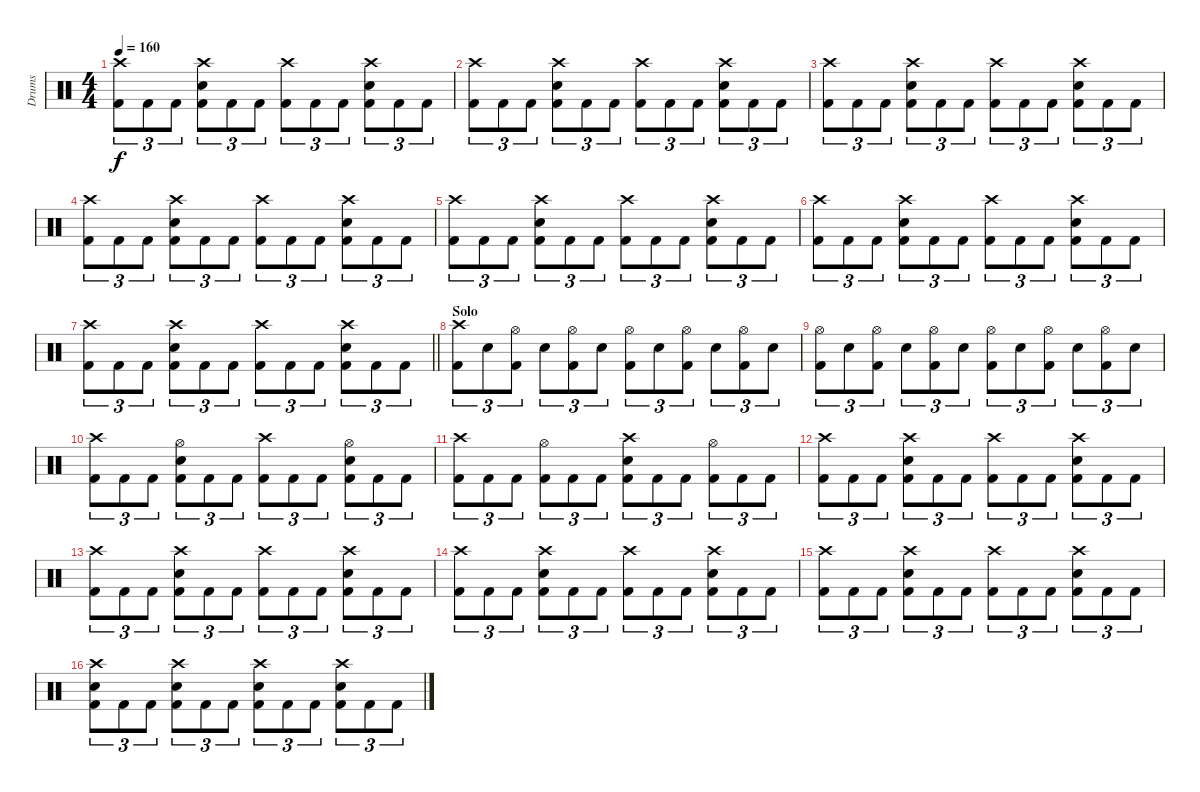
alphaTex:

\track ("Drums" "Drums") {instrument percussion}
\staff {score}
\articulation defaults
\ts (4 4)
\tempo 160
\clef neutral
\ks c
("Crash high (hit)" "Kick (hit) 2").8{tu (3 2) dy f} "Kick (hit) 2".8{tu (3 2)} "Kick (hit) 2".8{tu (3 2)} ("Crash high (hit)" "Electric Snare (hit)" "Kick (hit) 2").8{tu (3 2)} "Kick (hit) 2".8{tu (3 2)} "Kick (hit) 2".8{tu (3 2)} ("Crash high (hit)" "Kick (hit) 2").8{tu (3 2)} "Kick (hit) 2".8{tu (3 2)} "Kick (hit) 2".8{tu (3 2)} ("Crash high (hit)" "Electric Snare (hit)" "Kick (hit) 2").8{tu (3 2)} "Kick (hit) 2".8{tu (3 2)} "Kick (hit) 2".8{tu (3 2)} |
("Crash high (hit)" "Kick (hit) 2").8{tu (3 2)} "Kick (hit) 2".8{tu (3 2)} "Kick (hit) 2".8{tu (3 2)} ("Crash high (hit)" "Electric Snare (hit)" "Kick (hit) 2").8{tu (3 2)} "Kick (hit) 2".8{tu (3 2)} "Kick (hit) 2".8{tu (3 2)} ("Crash high (hit)" "Kick (hit) 2").8{tu (3 2)} "Kick (hit) 2".8{tu (3 2)} "Kick (hit) 2".8{tu (3 2)} ("Crash high (hit)" "Electric Snare (hit)" "Kick (hit) 2").8{tu (3 2)} "Kick (hit) 2".8{tu (3 2)} "Kick (hit) 2".8{tu (3 2)} |
("Crash high (hit)" "Kick (hit) 2").8{tu (3 2)} "Kick (hit) 2".8{tu (3 2)} "Kick (hit) 2".8{tu (3 2)} ("Crash high (hit)" "Electric Snare (hit)" "Kick (hit) 2").8{tu (3 2)} "Kick (hit) 2".8{tu (3 2)} "Kick (hit) 2".8{tu (3 2)} ("Crash high (hit)" "Kick (hit) 2").8{tu (3 2)} "Kick (hit) 2".8{tu (3 2)} "Kick (hit) 2".8{tu (3 2)} ("Crash high (hit)" "Electric Snare (hit)" "Kick (hit) 2").8{tu (3 2)} "Kick (hit) 2".8{tu (3 2)} "Kick (hit) 2".8{tu (3 2)} |
("Crash high (hit)" "Kick (hit) 2").8{tu (3 2)} "Kick (hit) 2".8{tu (3 2)} "Kick (hit) 2".8{tu (3 2)} ("Crash high (hit)" "Electric Snare (hit)" "Kick (hit) 2").8{tu (3 2)} "Kick (hit) 2".8{tu (3 2)} "Kick (hit) 2".8{tu (3 2)} ("Crash high (hit)" "Kick (hit) 2").8{tu (3 2)} "Kick (hit) 2".8{tu (3 2)} "Kick (hit) 2".8{tu (3 2)} ("Crash high (hit)" "Electric Snare (hit)" "Kick (hit) 2").8{tu (3 2)} "Kick (hit) 2".8{tu (3 2)} "Kick (hit) 2".8{tu (3 2)} |
("Crash high (hit)" "Kick (hit) 2").8{tu (3 2)} "Kick (hit) 2".8{tu (3 2)} "Kick (hit) 2".8{tu (3 2)} ("Crash high (hit)" "Electric Snare (hit)" "Kick (hit) 2").8{tu (3 2)} "Kick (hit) 2".8{tu (3 2)} "Kick (hit) 2".8{tu (3 2)} ("Crash high (hit)" "Kick (hit) 2").8{tu (3 2)} "Kick (hit) 2".8{tu (3 2)} "Kick (hit) 2".8{tu (3 2)} ("Crash high (hit)" "Electric Snare (hit)" "Kick (hit) 2").8{tu (3 2)} "Kick (hit) 2".8{tu (3 2)} "Kick (hit) 2".8{tu (3 2)} |
("Crash high (hit)" "Kick (hit) 2").8{tu (3 2)} "Kick (hit) 2".8{tu (3 2)} "Kick (hit) 2".8{tu (3 2)} ("Crash high (hit)" "Electric Snare (hit)" "Kick (hit) 2").8{tu (3 2)} "Kick (hit) 2".8{tu (3 2)} "Kick (hit) 2".8{tu (3 2)} ("Crash high (hit)" "Kick (hit) 2").8{tu (3 2)} "Kick (hit) 2".8{tu (3 2)} "Kick (hit) 2".8{tu (3 2)} ("Crash high (hit)" "Electric Snare (hit)" "Kick (hit) 2").8{tu (3 2)} "Kick (hit) 2".8{tu (3 2)} "Kick (hit) 2".8{tu (3 2)} |
\barLineRight lightlight
("Crash high (hit)" "Kick (hit) 2").8{tu (3 2)} "Kick (hit) 2".8{tu (3 2)} "Kick (hit) 2".8{tu (3 2)} ("Crash high (hit)" "Electric Snare (hit)" "Kick (hit) 2").8{tu (3 2)} "Kick (hit) 2".8{tu (3 2)} "Kick (hit) 2".8{tu (3 2)} ("Crash high (hit)" "Kick (hit) 2").8{tu (3 2)} "Kick (hit) 2".8{tu (3 2)} "Kick (hit) 2".8{tu (3 2)} ("Crash high (hit)" "Electric Snare (hit)" "Kick (hit) 2").8{tu (3 2)} "Kick (hit) 2".8{tu (3 2)} "Kick (hit) 2".8{tu (3 2)} |
\section ("" "Solo")
("Crash high (hit)" "Kick (hit) 2").8{tu (3 2)} "Electric Snare (hit)".8{tu (3 2)} ("Hi-Hat (open)" "Kick (hit) 2").8{tu (3 2)} "Electric Snare (hit)".8{tu (3 2)} ("Hi-Hat (open)" "Kick (hit) 2").8{tu (3 2)} "Electric Snare (hit)".8{tu (3 2)} ("Hi-Hat (open)" "Kick (hit) 2").8{tu (3 2)} "Electric Snare (hit)".8{tu (3 2)} ("Hi-Hat (open)" "Kick (hit) 2").8{tu (3 2)} "Electric Snare (hit)".8{tu (3 2)} ("Hi-Hat (open)" "Kick (hit) 2").8{tu (3 2)} "Electric Snare (hit)".8{tu (3 2)} |
("Hi-Hat (open)" "Kick (hit) 2").8{tu (3 2)} "Electric Snare (hit)".8{tu (3 2)} ("Hi-Hat (open)" "Kick (hit) 2").8{tu (3 2)} "Electric Snare (hit)".8{tu (3 2)} ("Hi-Hat (open)" "Kick (hit) 2").8{tu (3 2)} "Electric Snare (hit)".8{tu (3 2)} ("Hi-Hat (open)" "Kick (hit) 2").8{tu (3 2)} "Electric Snare (hit)".8{tu (3 2)} ("Hi-Hat (open)" "Kick (hit) 2").8{tu (3 2)} "Electric Snare (hit)".8{tu (3 2)} ("Hi-Hat (open)" "Kick (hit) 2").8{tu (3 2)} "Electric Snare (hit)".8{tu (3 2)} |
("Crash high (hit)" "Kick (hit) 2").8{tu (3 2)} "Kick (hit) 2".8{tu (3 2)} "Kick (hit) 2".8{tu (3 2)} ("Hi-Hat (open)" "Electric Snare (hit)" "Kick (hit) 2").8{tu (3 2)} "Kick (hit) 2".8{tu (3 2)} "Kick (hit) 2".8{tu (3 2)} ("Crash high (hit)" "Kick (hit) 2").8{tu (3 2)} "Kick (hit) 2".8{tu (3 2)} "Kick (hit) 2".8{tu (3 2)} ("Hi-Hat (open)" "Electric Snare (hit)" "Kick (hit) 2").8{tu (3 2)} "Kick (hit) 2".8{tu (3 2)} "Kick (hit) 2".8{tu (3 2)} |
("Crash high (hit)" "Kick (hit) 2").8{tu (3 2)} "Kick (hit) 2".8{tu (3 2)} "Kick (hit) 2".8{tu (3 2)} ("Hi-Hat (open)" "Kick (hit) 2").8{tu (3 2)} "Kick (hit) 2".8{tu (3 2)} "Kick (hit) 2".8{tu (3 2)} ("Crash high (hit)" "Electric Snare (hit)" "Kick (hit) 2").8{tu (3 2)} "Kick (hit) 2".8{tu (3 2)} "Kick (hit) 2".8{tu (3 2)} ("Hi-Hat (open)" "Kick (hit) 2").8{tu (3 2)} "Kick (hit) 2".8{tu (3 2)} "Kick (hit) 2".8{tu (3 2)} |
("Crash high (hit)" "Kick (hit) 2").8{tu (3 2)} "Kick (hit) 2".8{tu (3 2)} "Kick (hit) 2".8{tu (3 2)} ("Crash high (hit)" "Electric Snare (hit)" "Kick (hit) 2").8{tu (3 2)} "Kick (hit) 2".8{tu (3 2)} "Kick (hit) 2".8{tu (3 2)} ("Crash high (hit)" "Kick (hit) 2").8{tu (3 2)} "Kick (hit) 2".8{tu (3 2)} "Kick (hit) 2".8{tu (3 2)} ("Crash high (hit)" "Electric Snare (hit)" "Kick (hit) 2").8{tu (3 2)} "Kick (hit) 2".8{tu (3 2)} "Kick (hit) 2".8{tu (3 2)} |
("Crash high (hit)" "Kick (hit) 2").8{tu (3 2)} "Kick (hit) 2".8{tu (3 2)} "Kick (hit) 2".8{tu (3 2)} ("Crash high (hit)" "Electric Snare (hit)" "Kick (hit) 2").8{tu (3 2)} "Kick (hit) 2".8{tu (3 2)} "Kick (hit) 2".8{tu (3 2)} ("Crash high (hit)" "Kick (hit) 2").8{tu (3 2)} "Kick (hit) 2".8{tu (3 2)} "Kick (hit) 2".8{tu (3 2)} ("Crash high (hit)" "Electric Snare (hit)" "Kick (hit) 2").8{tu (3 2)} "Kick (hit) 2".8{tu (3 2)} "Kick (hit) 2".8{tu (3 2)} |
("Crash high (hit)" "Kick (hit) 2").8{tu (3 2)} "Kick (hit) 2".8{tu (3 2)} "Kick (hit) 2".8{tu (3 2)} ("Crash high (hit)" "Electric Snare (hit)" "Kick (hit) 2").8{tu (3 2)} "Kick (hit) 2".8{tu (3 2)} "Kick (hit) 2".8{tu (3 2)} ("Crash high (hit)" "Kick (hit) 2").8{tu (3 2)} "Kick (hit) 2".8{tu (3 2)} "Kick (hit) 2".8{tu (3 2)} ("Crash high (hit)" "Electric Snare (hit)" "Kick (hit) 2").8{tu (3 2)} "Kick (hit) 2".8{tu (3 2)} "Kick (hit) 2".8{tu (3 2)} |
("Crash high (hit)" "Kick (hit) 2").8{tu (3 2)} "Kick (hit) 2".8{tu (3 2)} "Kick (hit) 2".8{tu (3 2)} ("Crash high (hit)" "Electric Snare (hit)" "Kick (hit) 2").8{tu (3 2)} "Kick (hit) 2".8{tu (3 2)} "Kick (hit) 2".8{tu (3 2)} ("Crash high (hit)" "Kick (hit) 2").8{tu (3 2)} "Kick (hit) 2".8{tu (3 2)} "Kick (hit) 2".8{tu (3 2)} ("Crash high (hit)" "Electric Snare (hit)" "Kick (hit) 2").8{tu (3 2)} "Kick (hit) 2".8{tu (3 2)} "Kick (hit) 2".8{tu (3 2)} |
("Crash high (hit)" "Electric Snare (hit)" "Kick (hit) 2").8{tu (3 2)} "Kick (hit) 2".8{tu (3 2)} "Kick (hit) 2".8{tu (3 2)} ("Crash high (hit)" "Electric Snare (hit)" "Kick (hit) 2").8{tu (3 2)} "Kick (hit) 2".8{tu (3 2)} "Kick (hit) 2".8{tu (3 2)} ("Crash high (hit)" "Electric Snare (hit)" "Kick (hit) 2").8{tu (3 2)} "Kick (hit) 2".8{tu (3 2)} "Kick (hit) 2".8{tu (3 2)} ("Crash high (hit)" "Electric Snare (hit)" "Kick (hit) 2").8{tu (3 2)} "Kick (hit) 2".8{tu (3 2)} "Kick (hit) 2".8{tu (3 2)}
